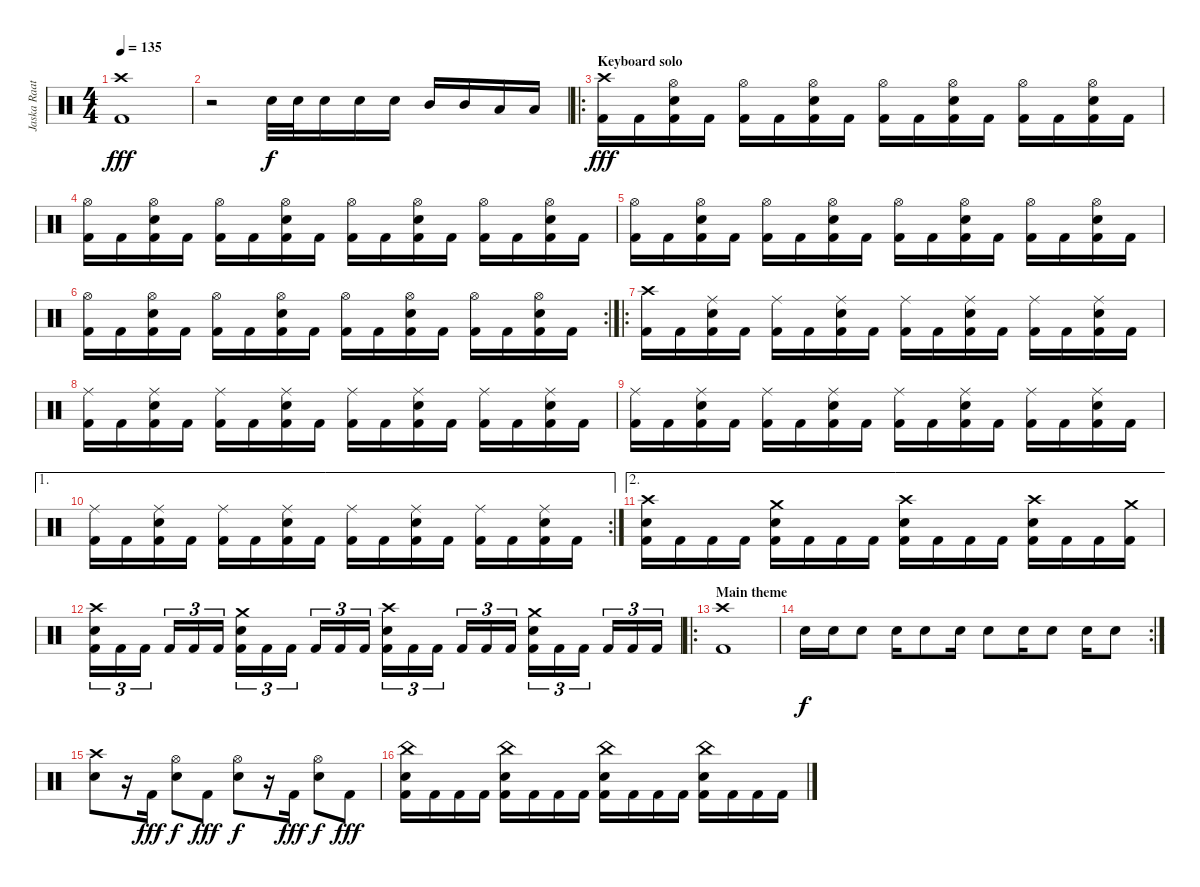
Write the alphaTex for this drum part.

\track ("Jaska Raatikainen" "Jaska Raat") {instrument percussion}
\staff {score}
\articulation defaults
\ts (4 4)
\tempo 135
\clef neutral
\ks c
("Crash high (hit)" "Kick (hit) 2").1{dy fff} |
r.2 "Electric Snare (hit)".32{dy f} "Electric Snare (hit)".32 "Electric Snare (hit)".16 "Electric Snare (hit)".16 "Electric Snare (hit)".16 "Mid Tom (hit)".16 "Mid Tom (hit)".16 "Low Tom (hit)".16 "Low Tom (hit)".16 |
\ro
\section ("" "Keyboard solo")
("Crash high (hit)" "Kick (hit) 2").16{dy fff} "Kick (hit) 2".16 ("Hi-Hat (open)" "Electric Snare (hit)" "Kick (hit) 2").16 "Kick (hit) 2".16 ("Hi-Hat (open)" "Kick (hit) 2").16 "Kick (hit) 2".16 ("Hi-Hat (open)" "Electric Snare (hit)" "Kick (hit) 2").16 "Kick (hit) 2".16 ("Hi-Hat (open)" "Kick (hit) 2").16 "Kick (hit) 2".16 ("Hi-Hat (open)" "Electric Snare (hit)" "Kick (hit) 2").16 "Kick (hit) 2".16 ("Hi-Hat (open)" "Kick (hit) 2").16 "Kick (hit) 2".16 ("Hi-Hat (open)" "Electric Snare (hit)" "Kick (hit) 2").16 "Kick (hit) 2".16 |
("Hi-Hat (open)" "Kick (hit) 2").16 "Kick (hit) 2".16 ("Hi-Hat (open)" "Electric Snare (hit)" "Kick (hit) 2").16 "Kick (hit) 2".16 ("Hi-Hat (open)" "Kick (hit) 2").16 "Kick (hit) 2".16 ("Hi-Hat (open)" "Electric Snare (hit)" "Kick (hit) 2").16 "Kick (hit) 2".16 ("Hi-Hat (open)" "Kick (hit) 2").16 "Kick (hit) 2".16 ("Hi-Hat (open)" "Electric Snare (hit)" "Kick (hit) 2").16 "Kick (hit) 2".16 ("Hi-Hat (open)" "Kick (hit) 2").16 "Kick (hit) 2".16 ("Hi-Hat (open)" "Electric Snare (hit)" "Kick (hit) 2").16 "Kick (hit) 2".16 |
("Hi-Hat (open)" "Kick (hit) 2").16 "Kick (hit) 2".16 ("Hi-Hat (open)" "Electric Snare (hit)" "Kick (hit) 2").16 "Kick (hit) 2".16 ("Hi-Hat (open)" "Kick (hit) 2").16 "Kick (hit) 2".16 ("Hi-Hat (open)" "Electric Snare (hit)" "Kick (hit) 2").16 "Kick (hit) 2".16 ("Hi-Hat (open)" "Kick (hit) 2").16 "Kick (hit) 2".16 ("Hi-Hat (open)" "Electric Snare (hit)" "Kick (hit) 2").16 "Kick (hit) 2".16 ("Hi-Hat (open)" "Kick (hit) 2").16 "Kick (hit) 2".16 ("Hi-Hat (open)" "Electric Snare (hit)" "Kick (hit) 2").16 "Kick (hit) 2".16 |
\rc 2
("Hi-Hat (open)" "Kick (hit) 2").16 "Kick (hit) 2".16 ("Hi-Hat (open)" "Electric Snare (hit)" "Kick (hit) 2").16 "Kick (hit) 2".16 ("Hi-Hat (open)" "Kick (hit) 2").16 "Kick (hit) 2".16 ("Hi-Hat (open)" "Electric Snare (hit)" "Kick (hit) 2").16 "Kick (hit) 2".16 ("Hi-Hat (open)" "Kick (hit) 2").16 "Kick (hit) 2".16 ("Hi-Hat (open)" "Electric Snare (hit)" "Kick (hit) 2").16 "Kick (hit) 2".16 ("Hi-Hat (open)" "Kick (hit) 2").16 "Kick (hit) 2".16 ("Hi-Hat (open)" "Electric Snare (hit)" "Kick (hit) 2").16 "Kick (hit) 2".16 |
\ro
("Crash high (hit)" "Kick (hit) 2").16 "Kick (hit) 2".16 ("Ride (middle)" "Electric Snare (hit)" "Kick (hit) 2").16 "Kick (hit) 2".16 ("Ride (middle)" "Kick (hit) 2").16 "Kick (hit) 2".16 ("Ride (middle)" "Electric Snare (hit)" "Kick (hit) 2").16 "Kick (hit) 2".16 ("Ride (middle)" "Kick (hit) 2").16 "Kick (hit) 2".16 ("Ride (middle)" "Electric Snare (hit)" "Kick (hit) 2").16 "Kick (hit) 2".16 ("Ride (middle)" "Kick (hit) 2").16 "Kick (hit) 2".16 ("Ride (middle)" "Electric Snare (hit)" "Kick (hit) 2").16 "Kick (hit) 2".16 |
("Ride (middle)" "Kick (hit) 2").16 "Kick (hit) 2".16 ("Ride (middle)" "Electric Snare (hit)" "Kick (hit) 2").16 "Kick (hit) 2".16 ("Ride (middle)" "Kick (hit) 2").16 "Kick (hit) 2".16 ("Ride (middle)" "Electric Snare (hit)" "Kick (hit) 2").16 "Kick (hit) 2".16 ("Ride (middle)" "Kick (hit) 2").16 "Kick (hit) 2".16 ("Ride (middle)" "Electric Snare (hit)" "Kick (hit) 2").16 "Kick (hit) 2".16 ("Ride (middle)" "Kick (hit) 2").16 "Kick (hit) 2".16 ("Ride (middle)" "Electric Snare (hit)" "Kick (hit) 2").16 "Kick (hit) 2".16 |
("Ride (middle)" "Kick (hit) 2").16 "Kick (hit) 2".16 ("Ride (middle)" "Electric Snare (hit)" "Kick (hit) 2").16 "Kick (hit) 2".16 ("Ride (middle)" "Kick (hit) 2").16 "Kick (hit) 2".16 ("Ride (middle)" "Electric Snare (hit)" "Kick (hit) 2").16 "Kick (hit) 2".16 ("Ride (middle)" "Kick (hit) 2").16 "Kick (hit) 2".16 ("Ride (middle)" "Electric Snare (hit)" "Kick (hit) 2").16 "Kick (hit) 2".16 ("Ride (middle)" "Kick (hit) 2").16 "Kick (hit) 2".16 ("Ride (middle)" "Electric Snare (hit)" "Kick (hit) 2").16 "Kick (hit) 2".16 |
\ae 1
\rc 2
("Ride (middle)" "Kick (hit) 2").16 "Kick (hit) 2".16 ("Ride (middle)" "Electric Snare (hit)" "Kick (hit) 2").16 "Kick (hit) 2".16 ("Ride (middle)" "Kick (hit) 2").16 "Kick (hit) 2".16 ("Ride (middle)" "Electric Snare (hit)" "Kick (hit) 2").16 "Kick (hit) 2".16 ("Ride (middle)" "Kick (hit) 2").16 "Kick (hit) 2".16 ("Ride (middle)" "Electric Snare (hit)" "Kick (hit) 2").16 "Kick (hit) 2".16 ("Ride (middle)" "Kick (hit) 2").16 "Kick (hit) 2".16 ("Ride (middle)" "Electric Snare (hit)" "Kick (hit) 2").16 "Kick (hit) 2".16 |
\ae 2
("Crash high (hit)" "Electric Snare (hit)" "Kick (hit) 2").16 "Kick (hit) 2".16 "Kick (hit) 2".16 "Kick (hit) 2".16 ("Crash medium (hit)" "Electric Snare (hit)" "Kick (hit) 2").16 "Kick (hit) 2".16 "Kick (hit) 2".16 "Kick (hit) 2".16 ("Crash high (hit)" "Electric Snare (hit)" "Kick (hit) 2").16 "Kick (hit) 2".16 "Kick (hit) 2".16 "Kick (hit) 2".16 ("Crash high (hit)" "Electric Snare (hit)" "Kick (hit) 2").16 "Kick (hit) 2".16 "Kick (hit) 2".16 ("Crash medium (hit)" "Kick (hit) 2").16 |
("Crash high (hit)" "Electric Snare (hit)" "Kick (hit) 2").16{tu (3 2)} "Kick (hit) 2".16{tu (3 2)} "Kick (hit) 2".16{tu (3 2)} "Kick (hit) 2".16{tu (3 2)} "Kick (hit) 2".16{tu (3 2)} "Kick (hit) 2".16{tu (3 2)} ("Crash medium (hit)" "Electric Snare (hit)" "Kick (hit) 2").16{tu (3 2)} "Kick (hit) 2".16{tu (3 2)} "Kick (hit) 2".16{tu (3 2)} "Kick (hit) 2".16{tu (3 2)} "Kick (hit) 2".16{tu (3 2)} "Kick (hit) 2".16{tu (3 2)} ("Crash high (hit)" "Electric Snare (hit)" "Kick (hit) 2").16{tu (3 2)} "Kick (hit) 2".16{tu (3 2)} "Kick (hit) 2".16{tu (3 2)} "Kick (hit) 2".16{tu (3 2)} "Kick (hit) 2".16{tu (3 2)} "Kick (hit) 2".16{tu (3 2)} ("Crash medium (hit)" "Electric Snare (hit)" "Kick (hit) 2").16{tu (3 2)} "Kick (hit) 2".16{tu (3 2)} "Kick (hit) 2".16{tu (3 2)} "Kick (hit) 2".16{tu (3 2)} "Kick (hit) 2".16{tu (3 2)} "Kick (hit) 2".16{tu (3 2)} |
\ro
\section ("" "Main theme")
("Crash high (hit)" "Kick (hit) 2").1 |
\rc 2 "Electric Snare (hit)".16{dy f} "Electric Snare (hit)".16 "Electric Snare (hit)".8 "Electric Snare (hit)".16 "Electric Snare (hit)".8 "Electric Snare (hit)".16 "Electric Snare (hit)".8 "Electric Snare (hit)".16 "Electric Snare (hit)".8 "Electric Snare (hit)".16 "Electric Snare (hit)".8
|
("Crash high (hit)" "Electric Snare (hit)").8 r.16 "Kick (hit) 2".16{dy fff} ("Hi-Hat (open)" "Electric Snare (hit)").8{dy f} "Kick (hit) 2".8{dy fff} ("Hi-Hat (open)" "Electric Snare (hit)").8{dy f} r.16 "Kick (hit) 2".16{dy fff} ("Hi-Hat (open)" "Electric Snare (hit)").8{dy f} "Kick (hit) 2".8{dy fff} |
("China (hit)" "Electric Snare (hit)" "Kick (hit) 2").16 "Kick (hit) 2".16 "Kick (hit) 2".16 "Kick (hit) 2".16 ("China (hit)" "Electric Snare (hit)" "Kick (hit) 2").16 "Kick (hit) 2".16 "Kick (hit) 2".16 "Kick (hit) 2".16 ("China (hit)" "Electric Snare (hit)" "Kick (hit) 2").16 "Kick (hit) 2".16 "Kick (hit) 2".16 "Kick (hit) 2".16 ("China (hit)" "Electric Snare (hit)" "Kick (hit) 2").16 "Kick (hit) 2".16 "Kick (hit) 2".16 "Kick (hit) 2".16
